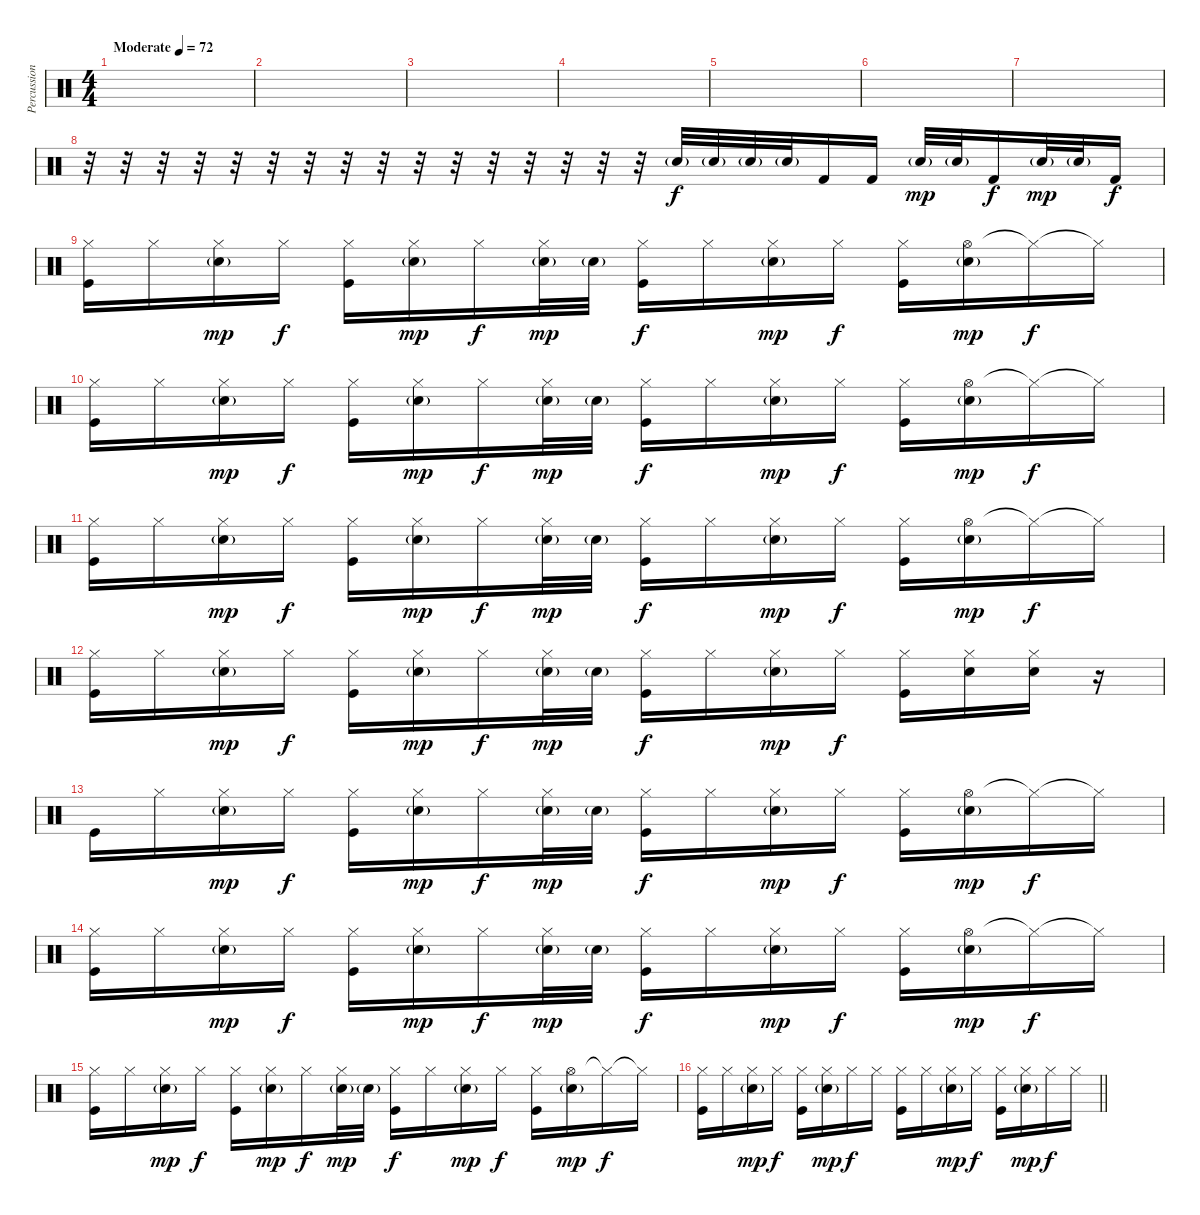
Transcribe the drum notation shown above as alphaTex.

\track ("Percussion" "Percussion") {instrument percussion}
\staff {score}
\articulation defaults
\ts (4 4)
\tempo (72 "Moderate")
\clef neutral
\ks c
|
|
|
|
|
|
|
r.32 r.32 r.32 r.32 r.32 r.32 r.32 r.32 r.32 r.32 r.32 r.32 r.32 r.32 r.32 r.32 "Snare (hit) 2"{g}.32 "Snare (hit) 2"{g}.32 "Snare (hit) 2"{g}.32 "Snare (hit) 2"{g}.32 "Kick (hit) 2".16{dy f} "Kick (hit) 2".16 "Snare (hit) 2"{g}.32{dy mp} "Snare (hit) 2"{g}.32 "Kick (hit) 2".16{dy f} "Snare (hit) 2"{g}.32{dy mp} "Snare (hit) 2"{g}.32 "Kick (hit) 2".16{dy f} |
("Hi-Hat (closed)" "Kick (hit)").16 "Hi-Hat (closed)".16 ("Hi-Hat (closed)" "Electric Snare (hit)"{g}).16{dy mp} "Hi-Hat (closed)".16{dy f} ("Hi-Hat (closed)" "Kick (hit)").16 ("Hi-Hat (closed)" "Electric Snare (hit)"{g}).16{dy mp} "Hi-Hat (closed)".16{dy f} ("Hi-Hat (closed)" "Electric Snare (hit)"{g}).32{dy mp} "Electric Snare (hit)"{g}.32 ("Hi-Hat (closed)" "Kick (hit)").16{dy f} "Hi-Hat (closed)".16 ("Hi-Hat (closed)" "Electric Snare (hit)"{g}).16{dy mp} "Hi-Hat (closed)".16{dy f} ("Hi-Hat (closed)" "Kick (hit)").16 ("Hi-Hat (open)" "Electric Snare (hit)"{g}).16{dy mp} "Hi-Hat (closed)"{t}.16{dy f} "Hi-Hat (closed)"{t}.16 |
("Hi-Hat (closed)" "Kick (hit)").16 "Hi-Hat (closed)".16 ("Hi-Hat (closed)" "Electric Snare (hit)"{g}).16{dy mp} "Hi-Hat (closed)".16{dy f} ("Hi-Hat (closed)" "Kick (hit)").16 ("Hi-Hat (closed)" "Electric Snare (hit)"{g}).16{dy mp} "Hi-Hat (closed)".16{dy f} ("Hi-Hat (closed)" "Electric Snare (hit)"{g}).32{dy mp} "Electric Snare (hit)"{g}.32 ("Hi-Hat (closed)" "Kick (hit)").16{dy f} "Hi-Hat (closed)".16 ("Hi-Hat (closed)" "Electric Snare (hit)"{g}).16{dy mp} "Hi-Hat (closed)".16{dy f} ("Hi-Hat (closed)" "Kick (hit)").16 ("Hi-Hat (open)" "Electric Snare (hit)"{g}).16{dy mp} "Hi-Hat (closed)"{t}.16{dy f} "Hi-Hat (closed)"{t}.16 |
("Hi-Hat (closed)" "Kick (hit)").16 "Hi-Hat (closed)".16 ("Hi-Hat (closed)" "Electric Snare (hit)"{g}).16{dy mp} "Hi-Hat (closed)".16{dy f} ("Hi-Hat (closed)" "Kick (hit)").16 ("Hi-Hat (closed)" "Electric Snare (hit)"{g}).16{dy mp} "Hi-Hat (closed)".16{dy f} ("Hi-Hat (closed)" "Electric Snare (hit)"{g}).32{dy mp} "Electric Snare (hit)"{g}.32 ("Hi-Hat (closed)" "Kick (hit)").16{dy f} "Hi-Hat (closed)".16 ("Hi-Hat (closed)" "Electric Snare (hit)"{g}).16{dy mp} "Hi-Hat (closed)".16{dy f} ("Hi-Hat (closed)" "Kick (hit)").16 ("Hi-Hat (open)" "Electric Snare (hit)"{g}).16{dy mp} "Hi-Hat (closed)"{t}.16{dy f} "Hi-Hat (closed)"{t}.16 |
("Hi-Hat (closed)" "Kick (hit)").16 "Hi-Hat (closed)".16 ("Hi-Hat (closed)" "Electric Snare (hit)"{g}).16{dy mp} "Hi-Hat (closed)".16{dy f} ("Hi-Hat (closed)" "Kick (hit)").16 ("Hi-Hat (closed)" "Electric Snare (hit)"{g}).16{dy mp} "Hi-Hat (closed)".16{dy f} ("Hi-Hat (closed)" "Electric Snare (hit)"{g}).32{dy mp} "Electric Snare (hit)"{g}.32 ("Hi-Hat (closed)" "Kick (hit)").16{dy f} "Hi-Hat (closed)".16 ("Hi-Hat (closed)" "Electric Snare (hit)"{g}).16{dy mp} "Hi-Hat (closed)".16{dy f} ("Hi-Hat (closed)" "Kick (hit)").16 ("Hi-Hat (closed)" "Electric Snare (hit)").16 ("Hi-Hat (closed)" "Electric Snare (hit)").16 r.16 |
"Kick (hit)".16 "Hi-Hat (closed)".16 ("Hi-Hat (closed)" "Electric Snare (hit)"{g}).16{dy mp} "Hi-Hat (closed)".16{dy f} ("Hi-Hat (closed)" "Kick (hit)").16 ("Hi-Hat (closed)" "Electric Snare (hit)"{g}).16{dy mp} "Hi-Hat (closed)".16{dy f} ("Hi-Hat (closed)" "Electric Snare (hit)"{g}).32{dy mp} "Electric Snare (hit)"{g}.32 ("Hi-Hat (closed)" "Kick (hit)").16{dy f} "Hi-Hat (closed)".16 ("Hi-Hat (closed)" "Electric Snare (hit)"{g}).16{dy mp} "Hi-Hat (closed)".16{dy f} ("Hi-Hat (closed)" "Kick (hit)").16 ("Hi-Hat (open)" "Electric Snare (hit)"{g}).16{dy mp} "Hi-Hat (closed)"{t}.16{dy f} "Hi-Hat (closed)"{t}.16 |
("Hi-Hat (closed)" "Kick (hit)").16 "Hi-Hat (closed)".16 ("Hi-Hat (closed)" "Electric Snare (hit)"{g}).16{dy mp} "Hi-Hat (closed)".16{dy f} ("Hi-Hat (closed)" "Kick (hit)").16 ("Hi-Hat (closed)" "Electric Snare (hit)"{g}).16{dy mp} "Hi-Hat (closed)".16{dy f} ("Hi-Hat (closed)" "Electric Snare (hit)"{g}).32{dy mp} "Electric Snare (hit)"{g}.32 ("Hi-Hat (closed)" "Kick (hit)").16{dy f} "Hi-Hat (closed)".16 ("Hi-Hat (closed)" "Electric Snare (hit)"{g}).16{dy mp} "Hi-Hat (closed)".16{dy f} ("Hi-Hat (closed)" "Kick (hit)").16 ("Hi-Hat (open)" "Electric Snare (hit)"{g}).16{dy mp} "Hi-Hat (closed)"{t}.16{dy f} "Hi-Hat (closed)"{t}.16 |
("Hi-Hat (closed)" "Kick (hit)").16 "Hi-Hat (closed)".16 ("Hi-Hat (closed)" "Electric Snare (hit)"{g}).16{dy mp} "Hi-Hat (closed)".16{dy f} ("Hi-Hat (closed)" "Kick (hit)").16 ("Hi-Hat (closed)" "Electric Snare (hit)"{g}).16{dy mp} "Hi-Hat (closed)".16{dy f} ("Hi-Hat (closed)" "Electric Snare (hit)"{g}).32{dy mp} "Electric Snare (hit)"{g}.32 ("Hi-Hat (closed)" "Kick (hit)").16{dy f} "Hi-Hat (closed)".16 ("Hi-Hat (closed)" "Electric Snare (hit)"{g}).16{dy mp} "Hi-Hat (closed)".16{dy f} ("Hi-Hat (closed)" "Kick (hit)").16 ("Hi-Hat (open)" "Electric Snare (hit)"{g}).16{dy mp} "Hi-Hat (closed)"{t}.16{dy f} "Hi-Hat (closed)"{t}.16 |
\barLineRight lightlight
("Hi-Hat (closed)" "Kick (hit)").16 "Hi-Hat (closed)".16 ("Hi-Hat (closed)" "Electric Snare (hit)"{g}).16{dy mp} "Hi-Hat (closed)".16{dy f} ("Hi-Hat (closed)" "Kick (hit)").16 ("Hi-Hat (closed)" "Electric Snare (hit)"{g}).16{dy mp} "Hi-Hat (closed)".16{dy f} "Hi-Hat (closed)".16 ("Hi-Hat (closed)" "Kick (hit)").16 "Hi-Hat (closed)".16 ("Hi-Hat (closed)" "Electric Snare (hit)"{g}).16{dy mp} "Hi-Hat (closed)".16{dy f} ("Hi-Hat (closed)" "Kick (hit)").16 ("Hi-Hat (closed)" "Electric Snare (hit)"{g}).16{dy mp} "Hi-Hat (closed)".16{dy f} "Hi-Hat (closed)".16
